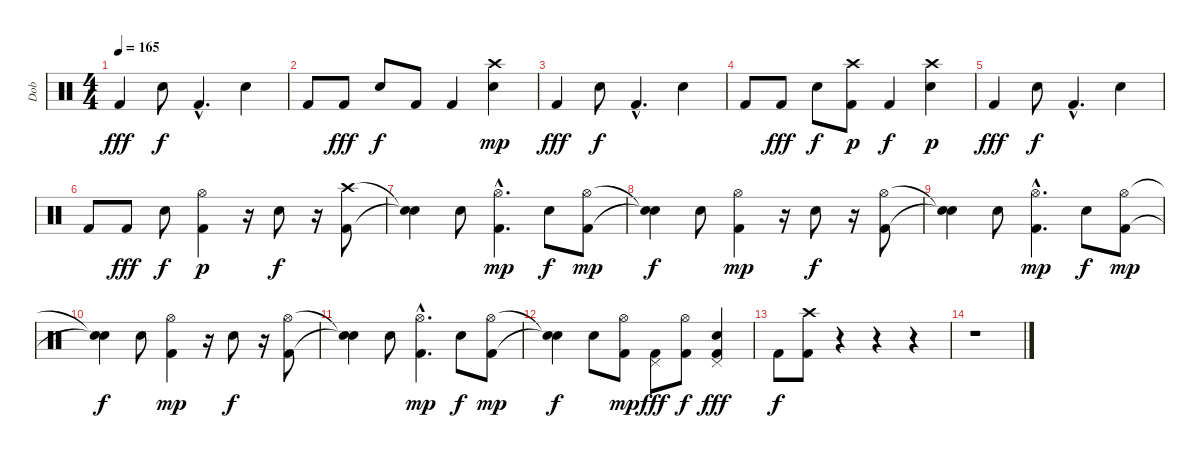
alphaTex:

\track ("Dob" "Dob") {instrument percussion}
\staff {score}
\articulation defaults
\ts (4 4)
\tempo 165
\clef neutral
\ks c "Kick (hit) 2".4{dy fff} "Electric Snare (hit)".8{dy f} "Kick (hit) 2"{hac}.4{d} "Electric Snare (hit)".4
|
"Kick (hit) 2".8 "Kick (hit) 2".8{dy fff} "Electric Snare (hit)".8{dy f} "Kick (hit) 2".8 "Kick (hit) 2".4 ("Electric Snare (hit)" "Crash high (hit)").4{dy mp} |
"Kick (hit) 2".4{dy fff} "Electric Snare (hit)".8{dy f} "Kick (hit) 2"{hac}.4{d} "Electric Snare (hit)".4 |
"Kick (hit) 2".8 "Kick (hit) 2".8{dy fff} "Electric Snare (hit)".8{dy f} ("Kick (hit) 2" "Crash high (hit)").8{dy p} "Kick (hit) 2".4{dy f} ("Electric Snare (hit)" "Crash high (hit)").4{dy p} |
"Kick (hit) 2".4{dy fff} "Electric Snare (hit)".8{dy f} "Kick (hit) 2"{hac}.4{d} "Electric Snare (hit)".4 |
"Kick (hit) 2".8 "Kick (hit) 2".8{dy fff} "Electric Snare (hit)".8{dy f} ("Kick (hit) 2" "Hi-Hat (open)").4{dy p} r.16 "Electric Snare (hit)"{tr (40 16)}.8{dy f} r.16 ("Kick (hit) 2" "Crash high (hit)").8 |
("Snare (hit)"{t} "Snare (hit)"{t}).4 "Electric Snare (hit)".8 ("Kick (hit) 2"{hac} "Hi-Hat (open)"{hac}).4{d dy mp} "Electric Snare (hit)".8{dy f} ("Kick (hit) 2" "Hi-Hat (open)").8{dy mp} |
("Snare (hit)"{t} "Snare (hit)"{t}).4{dy f} "Electric Snare (hit)".8 ("Kick (hit) 2" "Hi-Hat (open)").4{dy mp} r.16 "Electric Snare (hit)"{tr (40 16)}.8{dy f} r.16 ("Kick (hit) 2" "Hi-Hat (open)").8 |
("Snare (hit)"{t} "Snare (hit)"{t}).4 "Electric Snare (hit)".8 ("Kick (hit) 2"{hac} "Hi-Hat (open)"{hac}).4{d dy mp} "Electric Snare (hit)".8{dy f} ("Kick (hit) 2" "Hi-Hat (open)").8{dy mp} |
("Snare (hit)"{t} "Snare (hit)"{t}).4{dy f} "Electric Snare (hit)".8 ("Kick (hit) 2" "Hi-Hat (open)").4{dy mp} r.16 "Electric Snare (hit)"{tr (40 16)}.8{dy f} r.16 ("Kick (hit) 2" "Hi-Hat (open)").8 |
("Snare (hit)"{t} "Snare (hit)"{t}).4 "Electric Snare (hit)".8 ("Kick (hit) 2"{hac} "Hi-Hat (open)"{hac}).4{d dy mp} "Electric Snare (hit)".8{dy f} ("Kick (hit) 2" "Hi-Hat (open)").8{dy mp} |
("Snare (hit)"{t} "Snare (hit)"{t}).4{dy f} "Electric Snare (hit)".8 ("Kick (hit) 2" "Hi-Hat (open)").8{dy mp} ("Kick (hit) 2" "Pedal Hi-Hat (hit)").8{dy fff} ("Kick (hit) 2" "Hi-Hat (open)").8{dy f} ("Electric Snare (hit)" "Kick (hit) 2" "Pedal Hi-Hat (hit)").4{dy fff} |
"Kick (hit) 2".8{dy f} ("Kick (hit) 2" "Crash high (hit)").8 r.4 r.4 r.4 |
r.1
